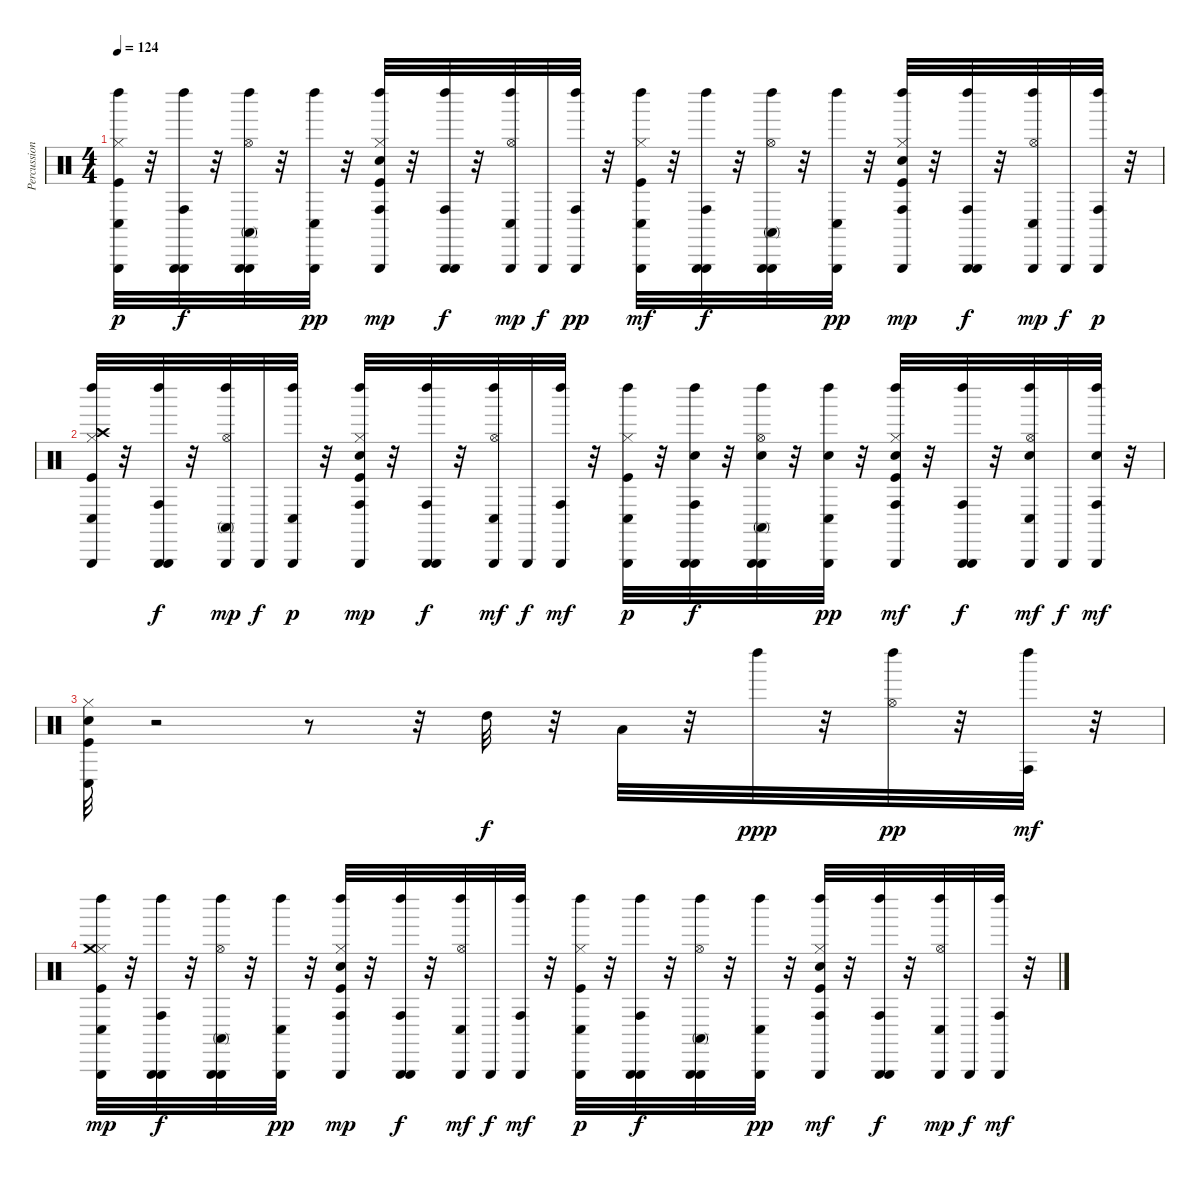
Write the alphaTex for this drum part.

\track ("Percussion" "Percussion") {instrument percussion}
\staff {score}
\articulation defaults
\ts (4 4)
\tempo 124
\clef neutral
\ks c
("Hi-Hat (closed)" "Left Maraca (hit)" "Triangle (hit)" "Kick (hit)" "Conga low (hit)").32{dy p} r.32 ("Conga high (hit)" "Left Maraca (hit)" "Triangle (hit)" "Triangle (hit)").32{dy f} r.32 ("Triangle (hit)" "Conga high (mute)" "Hi-Hat (open)" "Left Maraca (hit)" "Triangle (hit)").32 r.32 ("Triangle (hit)" "Conga low (hit)" "Left Maraca (hit)").32{dy pp} r.32 ("Triangle (hit)" "Hi-Hat (closed)" "Kick (hit)" "Snare (hit) 2" "Conga high (hit)" "Left Maraca (hit)").32{dy mp} r.32 ("Triangle (hit)" "Left Maraca (hit)" "Conga high (hit)" "Triangle (hit)").32{dy f} r.32 ("Triangle (hit)" "Conga low (hit)" "Left Maraca (hit)" "Hi-Hat (open)").32{dy mp} "Triangle (hit)".32{dy f} ("Triangle (hit)" "Conga high (hit)" "Left Maraca (hit)").32{dy pp} r.32 ("Triangle (hit)" "Conga low (hit)" "Left Maraca (hit)" "Kick (hit)" "Hi-Hat (closed)").32{dy mf} r.32 ("Triangle (hit)" "Conga high (hit)" "Left Maraca (hit)" "Triangle (hit)").32{dy f} r.32 ("Triangle (hit)" "Conga high (mute)" "Hi-Hat (open)" "Left Maraca (hit)" "Triangle (hit)").32 r.32 ("Conga low (hit)" "Triangle (hit)" "Left Maraca (hit)").32{dy pp} r.32 ("Triangle (hit)" "Left Maraca (hit)" "Kick (hit)" "Snare (hit) 2" "Hi-Hat (closed)" "Conga high (hit)").32{dy mp} r.32 ("Triangle (hit)" "Left Maraca (hit)" "Conga high (hit)" "Triangle (hit)").32{dy f} r.32 ("Hi-Hat (open)" "Conga low (hit)" "Triangle (hit)" "Left Maraca (hit)").32{dy mp} "Triangle (hit)".32{dy f} ("Triangle (hit)" "Conga high (hit)" "Left Maraca (hit)").32{dy p} r.32 |
("Triangle (hit)" "Hi-Hat (closed)" "Kick (hit)" "Crash high (hit)" "Left Maraca (hit)" "Conga low (hit)").32 r.32 ("Triangle (hit)" "Left Maraca (hit)" "Conga high (hit)" "Triangle (hit)").32{dy f} r.32 ("Conga high (mute)" "Triangle (hit)" "Left Maraca (hit)" "Hi-Hat (open)").32{dy mp} "Triangle (hit)".32{dy f} ("Left Maraca (hit)" "Triangle (hit)" "Conga low (hit)").32{dy p} r.32 ("Triangle (hit)" "Kick (hit)" "Snare (hit) 2" "Hi-Hat (closed)" "Conga high (hit)" "Left Maraca (hit)").32{dy mp} r.32 ("Triangle (hit)" "Conga high (hit)" "Left Maraca (hit)" "Triangle (hit)").32{dy f} r.32 ("Triangle (hit)" "Hi-Hat (open)" "Conga low (hit)" "Left Maraca (hit)").32{dy mf} "Triangle (hit)".32{dy f} ("Left Maraca (hit)" "Triangle (hit)" "Conga high (hit)").32{dy mf} r.32 ("Triangle (hit)" "Kick (hit)" "Hi-Hat (closed)" "Conga low (hit)" "Left Maraca (hit)").32{dy p} r.32 ("Triangle (hit)" "Snare (hit) 2" "Conga high (hit)" "Left Maraca (hit)" "Triangle (hit)").32{dy f} r.32 ("Hi-Hat (open)" "Triangle (hit)" "Snare (hit) 2" "Conga high (mute)" "Left Maraca (hit)" "Triangle (hit)").32 r.32 ("Triangle (hit)" "Snare (hit) 2" "Conga low (hit)" "Left Maraca (hit)").32{dy pp} r.32 ("Triangle (hit)" "Hi-Hat (closed)" "Left Maraca (hit)" "Kick (hit)" "Snare (hit) 2" "Conga high (hit)").32{dy mf} r.32 ("Triangle (hit)" "Conga high (hit)" "Left Maraca (hit)" "Triangle (hit)").32{dy f} r.32 ("Hi-Hat (open)" "Triangle (hit)" "Snare (hit) 2" "Left Maraca (hit)" "Conga low (hit)").32{dy mf} "Triangle (hit)".32{dy f} ("Left Maraca (hit)" "Triangle (hit)" "Snare (hit) 2" "Conga high (hit)").32{dy mf} r.32 |
("Kick (hit)" "Snare (hit) 2" "Conga low (hit)" "Hi-Hat (closed)").32 r.2 r.8 r.32 "High Tom (hit)".32{dy f} r.32 "Low Tom (hit)".32 r.32 "Left Maraca (hit)".32{dy ppp} r.32 ("Hi-Hat (open)" "Left Maraca (hit)").32{dy pp} r.32 ("Left Maraca (hit)" "Conga high (hit)").32{dy mf} r.32 |
("Hi-Hat (closed)" "Triangle (hit)" "Kick (hit)" "Crash medium (hit)" "Conga low (hit)" "Left Maraca (hit)").32{dy mp} r.32 ("Triangle (hit)" "Conga high (hit)" "Left Maraca (hit)" "Triangle (hit)").32{dy f} r.32 ("Triangle (hit)" "Hi-Hat (open)" "Conga high (mute)" "Left Maraca (hit)" "Triangle (hit)").32 r.32 ("Conga low (hit)" "Triangle (hit)" "Left Maraca (hit)").32{dy pp} r.32 ("Triangle (hit)" "Kick (hit)" "Snare (hit) 2" "Hi-Hat (closed)" "Conga high (hit)" "Left Maraca (hit)").32{dy mp} r.32 ("Triangle (hit)" "Left Maraca (hit)" "Conga high (hit)" "Triangle (hit)").32{dy f} r.32 ("Triangle (hit)" "Left Maraca (hit)" "Hi-Hat (open)" "Conga low (hit)").32{dy mf} "Triangle (hit)".32{dy f} ("Left Maraca (hit)" "Triangle (hit)" "Conga high (hit)").32{dy mf} r.32 ("Hi-Hat (closed)" "Triangle (hit)" "Kick (hit)" "Conga low (hit)" "Left Maraca (hit)").32{dy p} r.32 ("Triangle (hit)" "Left Maraca (hit)" "Conga high (hit)" "Triangle (hit)").32{dy f} r.32 ("Triangle (hit)" "Conga high (mute)" "Left Maraca (hit)" "Hi-Hat (open)" "Triangle (hit)").32 r.32 ("Triangle (hit)" "Conga low (hit)" "Left Maraca (hit)").32{dy pp} r.32 ("Triangle (hit)" "Hi-Hat (closed)" "Left Maraca (hit)" "Kick (hit)" "Snare (hit) 2" "Conga high (hit)").32{dy mf} r.32 ("Triangle (hit)" "Conga high (hit)" "Left Maraca (hit)" "Triangle (hit)").32{dy f} r.32 ("Triangle (hit)" "Hi-Hat (open)" "Conga low (hit)" "Left Maraca (hit)").32{dy mp} "Triangle (hit)".32{dy f} ("Left Maraca (hit)" "Triangle (hit)" "Conga high (hit)").32{dy mf} r.32
